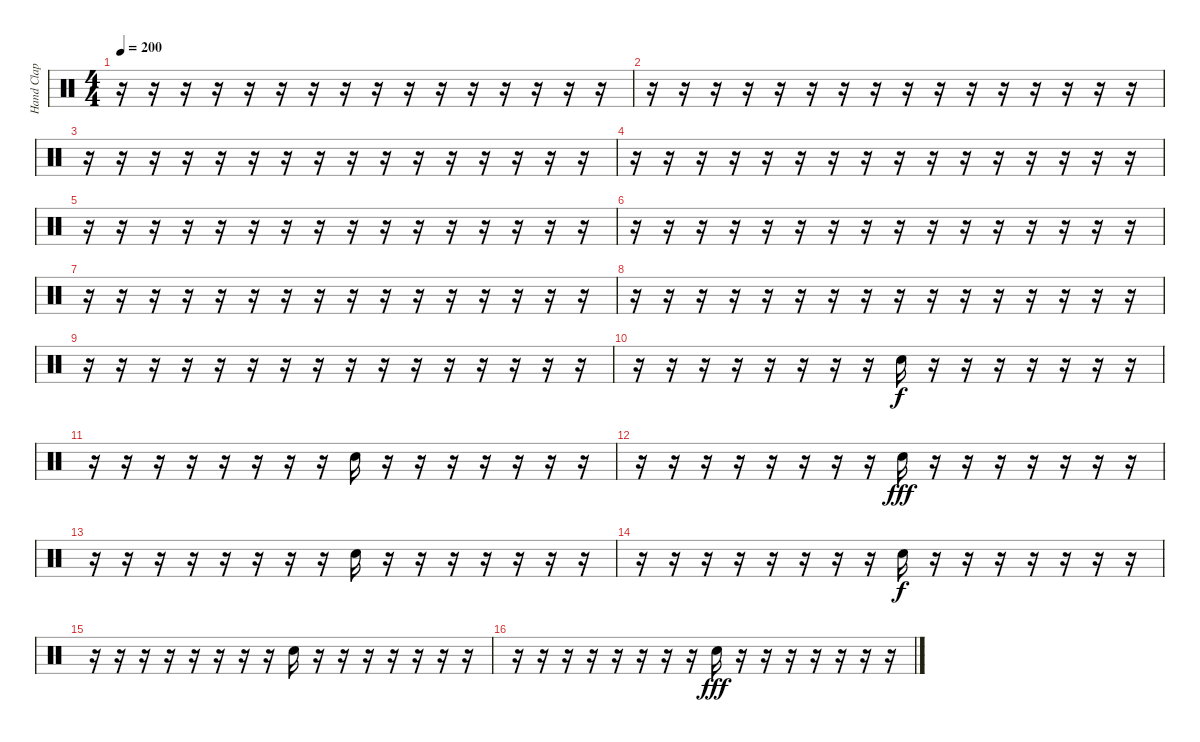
\track ("Hand Clap" "Hand Clap") {instrument percussion}
\staff {score}
\articulation defaults
\ts (4 4)
\tempo 200
\clef neutral
\ks c
r.16{dy f} r.16 r.16 r.16 r.16 r.16 r.16 r.16 r.16 r.16 r.16 r.16 r.16 r.16 r.16 r.16 |
r.16 r.16 r.16 r.16 r.16 r.16 r.16 r.16 r.16 r.16 r.16 r.16 r.16 r.16 r.16 r.16 |
r.16 r.16 r.16 r.16 r.16 r.16 r.16 r.16 r.16 r.16 r.16 r.16 r.16 r.16 r.16 r.16 |
r.16 r.16 r.16 r.16 r.16 r.16 r.16 r.16 r.16 r.16 r.16 r.16 r.16 r.16 r.16 r.16 |
r.16 r.16 r.16 r.16 r.16 r.16 r.16 r.16 r.16 r.16 r.16 r.16 r.16 r.16 r.16 r.16 |
r.16 r.16 r.16 r.16 r.16 r.16 r.16 r.16 r.16 r.16 r.16 r.16 r.16 r.16 r.16 r.16 |
r.16 r.16 r.16 r.16 r.16 r.16 r.16 r.16 r.16 r.16 r.16 r.16 r.16 r.16 r.16 r.16 |
r.16 r.16 r.16 r.16 r.16 r.16 r.16 r.16 r.16 r.16 r.16 r.16 r.16 r.16 r.16 r.16 |
r.16 r.16 r.16 r.16 r.16 r.16 r.16 r.16 r.16 r.16 r.16 r.16 r.16 r.16 r.16 r.16 |
r.16 r.16 r.16 r.16 r.16 r.16 r.16 r.16 "Hand Clap (hit)".16 r.16 r.16 r.16 r.16 r.16 r.16 r.16 |
r.16 r.16 r.16 r.16 r.16 r.16 r.16 r.16 "Hand Clap (hit)".16 r.16 r.16 r.16 r.16 r.16 r.16 r.16 |
r.16 r.16 r.16 r.16 r.16 r.16 r.16 r.16 "Hand Clap (hit)".16{dy fff} r.16 r.16 r.16 r.16 r.16 r.16 r.16 |
r.16 r.16 r.16 r.16 r.16 r.16 r.16 r.16 "Hand Clap (hit)".16 r.16 r.16 r.16 r.16 r.16 r.16 r.16 |
r.16 r.16 r.16 r.16 r.16 r.16 r.16 r.16 "Hand Clap (hit)".16{dy f} r.16 r.16 r.16 r.16 r.16 r.16 r.16 |
r.16 r.16 r.16 r.16 r.16 r.16 r.16 r.16 "Hand Clap (hit)".16 r.16 r.16 r.16 r.16 r.16 r.16 r.16 |
r.16 r.16 r.16 r.16 r.16 r.16 r.16 r.16 "Hand Clap (hit)".16{dy fff} r.16 r.16 r.16 r.16 r.16 r.16 r.16
